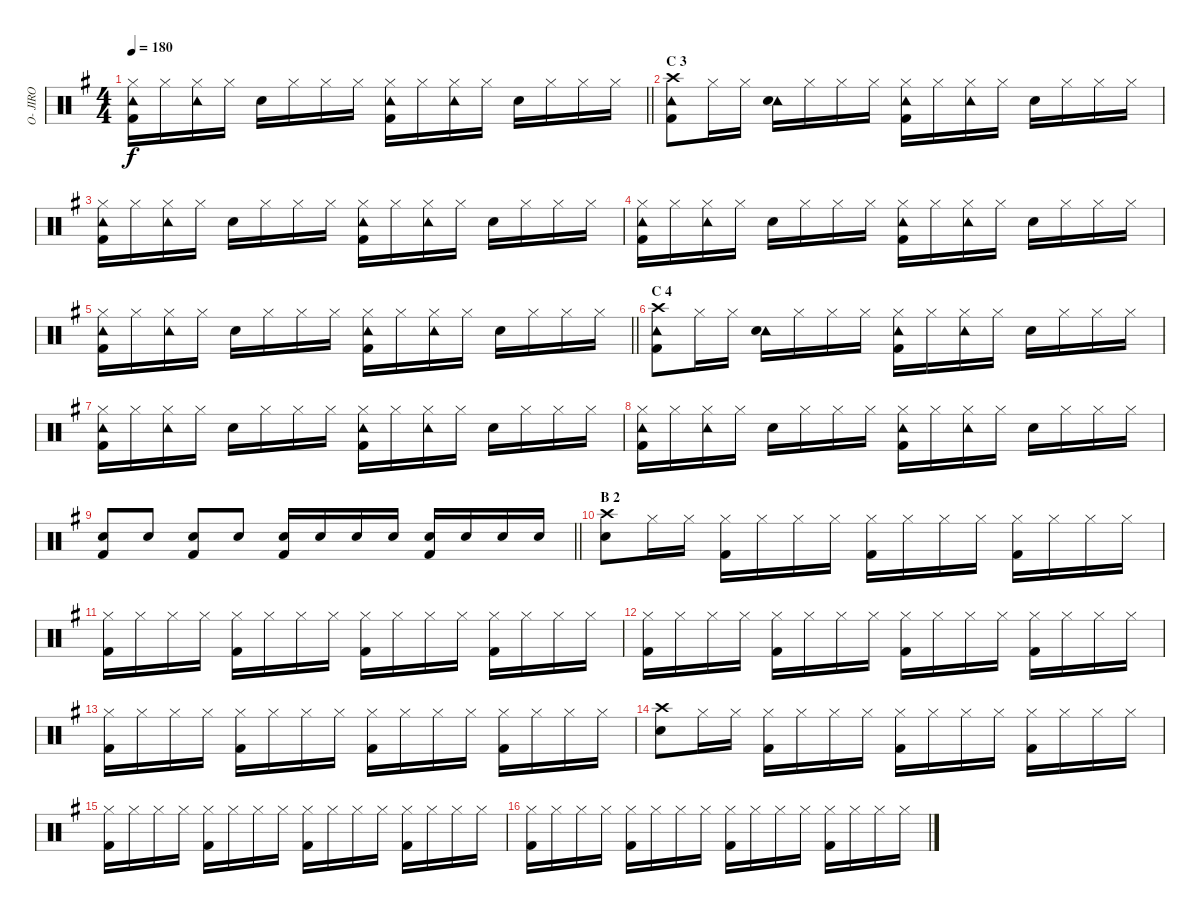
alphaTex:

\track ("O- JIRO" "O- JIRO") {instrument percussion}
\staff {score}
\articulation defaults
\ts (4 4)
\tempo 180
\clef neutral
\barLineRight lightlight
\ks g
("Tambourine (hit)" "Kick (hit) 2" "Hi-Hat (closed)").16{dy f} "Hi-Hat (closed)".16 ("Hi-Hat (closed)" "Tambourine (hit)").16 "Hi-Hat (closed)".16 "Snare (hit) 2".16 "Hi-Hat (closed)".16 "Hi-Hat (closed)".16 "Hi-Hat (closed)".16 ("Tambourine (hit)" "Kick (hit) 2" "Hi-Hat (closed)").16 "Hi-Hat (closed)".16 ("Hi-Hat (closed)" "Tambourine (hit)").16 "Hi-Hat (closed)".16 "Snare (hit) 2".16 "Hi-Hat (closed)".16 "Hi-Hat (closed)".16 "Hi-Hat (closed)".16 |
\section ("" "C 3")
("Crash high (hit)" "Kick (hit) 2" "Tambourine (hit)").8 "Hi-Hat (closed)".16 "Hi-Hat (closed)".16 ("Tambourine (hit)" "Snare (hit) 2").16 "Hi-Hat (closed)".16 "Hi-Hat (closed)".16 "Hi-Hat (closed)".16 ("Tambourine (hit)" "Kick (hit) 2" "Hi-Hat (closed)").16 "Hi-Hat (closed)".16 ("Hi-Hat (closed)" "Tambourine (hit)").16 "Hi-Hat (closed)".16 "Snare (hit) 2".16 "Hi-Hat (closed)".16 "Hi-Hat (closed)".16 "Hi-Hat (closed)".16 |
("Tambourine (hit)" "Kick (hit) 2" "Hi-Hat (closed)").16 "Hi-Hat (closed)".16 ("Hi-Hat (closed)" "Tambourine (hit)").16 "Hi-Hat (closed)".16 "Snare (hit) 2".16 "Hi-Hat (closed)".16 "Hi-Hat (closed)".16 "Hi-Hat (closed)".16 ("Tambourine (hit)" "Kick (hit) 2" "Hi-Hat (closed)").16 "Hi-Hat (closed)".16 ("Hi-Hat (closed)" "Tambourine (hit)").16 "Hi-Hat (closed)".16 "Snare (hit) 2".16 "Hi-Hat (closed)".16 "Hi-Hat (closed)".16 "Hi-Hat (closed)".16 |
("Tambourine (hit)" "Kick (hit) 2" "Hi-Hat (closed)").16 "Hi-Hat (closed)".16 ("Hi-Hat (closed)" "Tambourine (hit)").16 "Hi-Hat (closed)".16 "Snare (hit) 2".16 "Hi-Hat (closed)".16 "Hi-Hat (closed)".16 "Hi-Hat (closed)".16 ("Tambourine (hit)" "Kick (hit) 2" "Hi-Hat (closed)").16 "Hi-Hat (closed)".16 ("Hi-Hat (closed)" "Tambourine (hit)").16 "Hi-Hat (closed)".16 "Snare (hit) 2".16 "Hi-Hat (closed)".16 "Hi-Hat (closed)".16 "Hi-Hat (closed)".16 |
\barLineRight lightlight
("Tambourine (hit)" "Kick (hit) 2" "Hi-Hat (closed)").16 "Hi-Hat (closed)".16 ("Hi-Hat (closed)" "Tambourine (hit)").16 "Hi-Hat (closed)".16 "Snare (hit) 2".16 "Hi-Hat (closed)".16 "Hi-Hat (closed)".16 "Hi-Hat (closed)".16 ("Tambourine (hit)" "Kick (hit) 2" "Hi-Hat (closed)").16 "Hi-Hat (closed)".16 ("Hi-Hat (closed)" "Tambourine (hit)").16 "Hi-Hat (closed)".16 "Snare (hit) 2".16 "Hi-Hat (closed)".16 "Hi-Hat (closed)".16 "Hi-Hat (closed)".16 |
\section ("" "C 4")
("Crash high (hit)" "Kick (hit) 2" "Tambourine (hit)").8 "Hi-Hat (closed)".16 "Hi-Hat (closed)".16 ("Tambourine (hit)" "Snare (hit) 2").16 "Hi-Hat (closed)".16 "Hi-Hat (closed)".16 "Hi-Hat (closed)".16 ("Tambourine (hit)" "Kick (hit) 2" "Hi-Hat (closed)").16 "Hi-Hat (closed)".16 ("Hi-Hat (closed)" "Tambourine (hit)").16 "Hi-Hat (closed)".16 "Snare (hit) 2".16 "Hi-Hat (closed)".16 "Hi-Hat (closed)".16 "Hi-Hat (closed)".16 |
("Tambourine (hit)" "Kick (hit) 2" "Hi-Hat (closed)").16 "Hi-Hat (closed)".16 ("Hi-Hat (closed)" "Tambourine (hit)").16 "Hi-Hat (closed)".16 "Snare (hit) 2".16 "Hi-Hat (closed)".16 "Hi-Hat (closed)".16 "Hi-Hat (closed)".16 ("Tambourine (hit)" "Kick (hit) 2" "Hi-Hat (closed)").16 "Hi-Hat (closed)".16 ("Hi-Hat (closed)" "Tambourine (hit)").16 "Hi-Hat (closed)".16 "Snare (hit) 2".16 "Hi-Hat (closed)".16 "Hi-Hat (closed)".16 "Hi-Hat (closed)".16 |
("Tambourine (hit)" "Kick (hit) 2" "Hi-Hat (closed)").16 "Hi-Hat (closed)".16 ("Hi-Hat (closed)" "Tambourine (hit)").16 "Hi-Hat (closed)".16 "Snare (hit) 2".16 "Hi-Hat (closed)".16 "Hi-Hat (closed)".16 "Hi-Hat (closed)".16 ("Tambourine (hit)" "Kick (hit) 2" "Hi-Hat (closed)").16 "Hi-Hat (closed)".16 ("Hi-Hat (closed)" "Tambourine (hit)").16 "Hi-Hat (closed)".16 "Snare (hit) 2".16 "Hi-Hat (closed)".16 "Hi-Hat (closed)".16 "Hi-Hat (closed)".16 |
\barLineRight lightlight
("Snare (hit) 2" "Kick (hit) 2").8 "Snare (hit) 2".8 ("Kick (hit) 2" "Snare (hit) 2").8 "Snare (hit) 2".8 ("Snare (hit) 2" "Kick (hit) 2").16 "Snare (hit) 2".16 "Snare (hit) 2".16 "Snare (hit) 2".16 ("Snare (hit) 2" "Kick (hit) 2").16 "Snare (hit) 2".16 "Snare (hit) 2".16 "Snare (hit) 2".16 |
\section ("" "B 2")
("Crash high (hit)" "Snare (hit) 2").8 "Hi-Hat (closed)".16 "Hi-Hat (closed)".16 ("Hi-Hat (closed)" "Kick (hit) 2").16 "Hi-Hat (closed)".16 "Hi-Hat (closed)".16 "Hi-Hat (closed)".16 ("Hi-Hat (closed)" "Kick (hit) 2").16 "Hi-Hat (closed)".16 "Hi-Hat (closed)".16 "Hi-Hat (closed)".16 ("Hi-Hat (closed)" "Kick (hit) 2").16 "Hi-Hat (closed)".16 "Hi-Hat (closed)".16 "Hi-Hat (closed)".16 |
("Hi-Hat (closed)" "Kick (hit) 2").16 "Hi-Hat (closed)".16 "Hi-Hat (closed)".16 "Hi-Hat (closed)".16 ("Hi-Hat (closed)" "Kick (hit) 2").16 "Hi-Hat (closed)".16 "Hi-Hat (closed)".16 "Hi-Hat (closed)".16 ("Hi-Hat (closed)" "Kick (hit) 2").16 "Hi-Hat (closed)".16 "Hi-Hat (closed)".16 "Hi-Hat (closed)".16 ("Hi-Hat (closed)" "Kick (hit) 2").16 "Hi-Hat (closed)".16 "Hi-Hat (closed)".16 "Hi-Hat (closed)".16 |
("Hi-Hat (closed)" "Kick (hit) 2").16 "Hi-Hat (closed)".16 "Hi-Hat (closed)".16 "Hi-Hat (closed)".16 ("Hi-Hat (closed)" "Kick (hit) 2").16 "Hi-Hat (closed)".16 "Hi-Hat (closed)".16 "Hi-Hat (closed)".16 ("Hi-Hat (closed)" "Kick (hit) 2").16 "Hi-Hat (closed)".16 "Hi-Hat (closed)".16 "Hi-Hat (closed)".16 ("Hi-Hat (closed)" "Kick (hit) 2").16 "Hi-Hat (closed)".16 "Hi-Hat (closed)".16 "Hi-Hat (closed)".16 |
("Hi-Hat (closed)" "Kick (hit) 2").16 "Hi-Hat (closed)".16 "Hi-Hat (closed)".16 "Hi-Hat (closed)".16 ("Hi-Hat (closed)" "Kick (hit) 2").16 "Hi-Hat (closed)".16 "Hi-Hat (closed)".16 "Hi-Hat (closed)".16 ("Hi-Hat (closed)" "Kick (hit) 2").16 "Hi-Hat (closed)".16 "Hi-Hat (closed)".16 "Hi-Hat (closed)".16 ("Hi-Hat (closed)" "Kick (hit) 2").16 "Hi-Hat (closed)".16 "Hi-Hat (closed)".16 "Hi-Hat (closed)".16 |
("Crash high (hit)" "Snare (hit) 2").8 "Hi-Hat (closed)".16 "Hi-Hat (closed)".16 ("Hi-Hat (closed)" "Kick (hit) 2").16 "Hi-Hat (closed)".16 "Hi-Hat (closed)".16 "Hi-Hat (closed)".16 ("Hi-Hat (closed)" "Kick (hit) 2").16 "Hi-Hat (closed)".16 "Hi-Hat (closed)".16 "Hi-Hat (closed)".16 ("Hi-Hat (closed)" "Kick (hit) 2").16 "Hi-Hat (closed)".16 "Hi-Hat (closed)".16 "Hi-Hat (closed)".16 |
("Hi-Hat (closed)" "Kick (hit) 2").16 "Hi-Hat (closed)".16 "Hi-Hat (closed)".16 "Hi-Hat (closed)".16 ("Hi-Hat (closed)" "Kick (hit) 2").16 "Hi-Hat (closed)".16 "Hi-Hat (closed)".16 "Hi-Hat (closed)".16 ("Hi-Hat (closed)" "Kick (hit) 2").16 "Hi-Hat (closed)".16 "Hi-Hat (closed)".16 "Hi-Hat (closed)".16 ("Hi-Hat (closed)" "Kick (hit) 2").16 "Hi-Hat (closed)".16 "Hi-Hat (closed)".16 "Hi-Hat (closed)".16 |
("Hi-Hat (closed)" "Kick (hit) 2").16 "Hi-Hat (closed)".16 "Hi-Hat (closed)".16 "Hi-Hat (closed)".16 ("Hi-Hat (closed)" "Kick (hit) 2").16 "Hi-Hat (closed)".16 "Hi-Hat (closed)".16 "Hi-Hat (closed)".16 ("Hi-Hat (closed)" "Kick (hit) 2").16 "Hi-Hat (closed)".16 "Hi-Hat (closed)".16 "Hi-Hat (closed)".16 ("Hi-Hat (closed)" "Kick (hit) 2").16 "Hi-Hat (closed)".16 "Hi-Hat (closed)".16 "Hi-Hat (closed)".16
